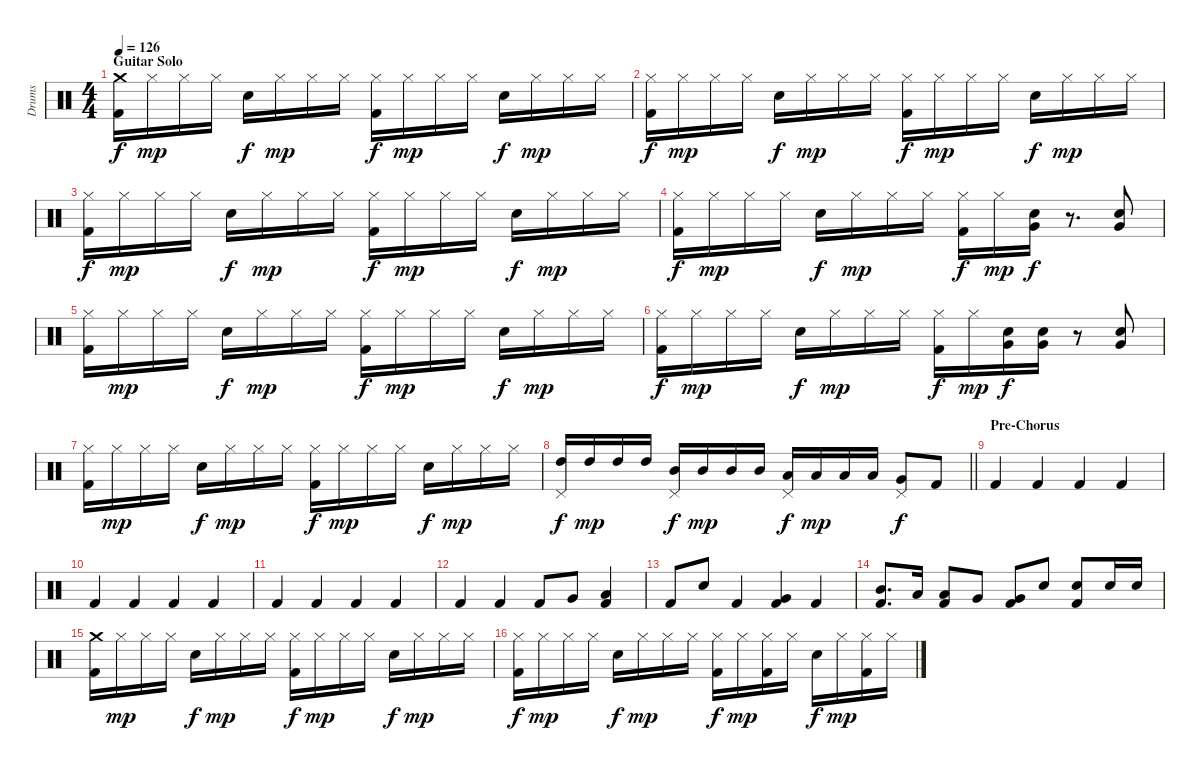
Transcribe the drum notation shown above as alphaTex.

\track ("Drums" "Drums") {instrument percussion}
\staff {score}
\articulation defaults
\ts (4 4)
\section ("" "Guitar Solo")
\tempo 126
\clef neutral
\ks c
("Crash medium (hit)" "Kick (hit) 2").16{dy f} "Hi-Hat (closed)".16{dy mp} "Hi-Hat (closed)".16 "Hi-Hat (closed)".16 "Snare (hit) 2".16{dy f} "Hi-Hat (closed)".16{dy mp} "Hi-Hat (closed)".16 "Hi-Hat (closed)".16 ("Hi-Hat (closed)" "Kick (hit) 2").16{dy f} "Hi-Hat (closed)".16{dy mp} "Hi-Hat (closed)".16 "Hi-Hat (closed)".16 "Snare (hit) 2".16{dy f} "Hi-Hat (closed)".16{dy mp} "Hi-Hat (closed)".16 "Hi-Hat (closed)".16 |
("Hi-Hat (closed)" "Kick (hit) 2").16{dy f} "Hi-Hat (closed)".16{dy mp} "Hi-Hat (closed)".16 "Hi-Hat (closed)".16 "Snare (hit) 2".16{dy f} "Hi-Hat (closed)".16{dy mp} "Hi-Hat (closed)".16 "Hi-Hat (closed)".16 ("Hi-Hat (closed)" "Kick (hit) 2").16{dy f} "Hi-Hat (closed)".16{dy mp} "Hi-Hat (closed)".16 "Hi-Hat (closed)".16 "Snare (hit) 2".16{dy f} "Hi-Hat (closed)".16{dy mp} "Hi-Hat (closed)".16 "Hi-Hat (closed)".16 |
("Hi-Hat (closed)" "Kick (hit) 2").16{dy f} "Hi-Hat (closed)".16{dy mp} "Hi-Hat (closed)".16 "Hi-Hat (closed)".16 "Snare (hit) 2".16{dy f} "Hi-Hat (closed)".16{dy mp} "Hi-Hat (closed)".16 "Hi-Hat (closed)".16 ("Hi-Hat (closed)" "Kick (hit) 2").16{dy f} "Hi-Hat (closed)".16{dy mp} "Hi-Hat (closed)".16 "Hi-Hat (closed)".16 "Snare (hit) 2".16{dy f} "Hi-Hat (closed)".16{dy mp} "Hi-Hat (closed)".16 "Hi-Hat (closed)".16 |
("Hi-Hat (closed)" "Kick (hit) 2").16{dy f} "Hi-Hat (closed)".16{dy mp} "Hi-Hat (closed)".16 "Hi-Hat (closed)".16 "Snare (hit) 2".16{dy f} "Hi-Hat (closed)".16{dy mp} "Hi-Hat (closed)".16 "Hi-Hat (closed)".16 ("Hi-Hat (closed)" "Kick (hit) 2").16{dy f} "Hi-Hat (closed)".16{dy mp} ("Snare (hit) 2" "Very Low Tom (hit)").16{dy f} r.8{d} ("Snare (hit) 2" "Very Low Tom (hit)").8 |
("Hi-Hat (closed)" "Kick (hit) 2").16 "Hi-Hat (closed)".16{dy mp} "Hi-Hat (closed)".16 "Hi-Hat (closed)".16 "Snare (hit) 2".16{dy f} "Hi-Hat (closed)".16{dy mp} "Hi-Hat (closed)".16 "Hi-Hat (closed)".16 ("Hi-Hat (closed)" "Kick (hit) 2").16{dy f} "Hi-Hat (closed)".16{dy mp} "Hi-Hat (closed)".16 "Hi-Hat (closed)".16 "Snare (hit) 2".16{dy f} "Hi-Hat (closed)".16{dy mp} "Hi-Hat (closed)".16 "Hi-Hat (closed)".16 |
("Hi-Hat (closed)" "Kick (hit) 2").16{dy f} "Hi-Hat (closed)".16{dy mp} "Hi-Hat (closed)".16 "Hi-Hat (closed)".16 "Snare (hit) 2".16{dy f} "Hi-Hat (closed)".16{dy mp} "Hi-Hat (closed)".16 "Hi-Hat (closed)".16 ("Hi-Hat (closed)" "Kick (hit) 2").16{dy f} "Hi-Hat (closed)".16{dy mp} ("Snare (hit) 2" "Very Low Tom (hit)").16{dy f} ("Snare (hit) 2" "Very Low Tom (hit)").16 r.8 ("Snare (hit) 2" "Very Low Tom (hit)").8 |
("Hi-Hat (closed)" "Kick (hit) 2").16 "Hi-Hat (closed)".16{dy mp} "Hi-Hat (closed)".16 "Hi-Hat (closed)".16 "Snare (hit) 2".16{dy f} "Hi-Hat (closed)".16{dy mp} "Hi-Hat (closed)".16 "Hi-Hat (closed)".16 ("Hi-Hat (closed)" "Kick (hit) 2").16{dy f} "Hi-Hat (closed)".16{dy mp} "Hi-Hat (closed)".16 "Hi-Hat (closed)".16 "Snare (hit) 2".16{dy f} "Hi-Hat (closed)".16{dy mp} "Hi-Hat (closed)".16 "Hi-Hat (closed)".16 |
\barLineRight lightlight
("Pedal Hi-Hat (hit)" "High Tom (hit)").16{dy f} "High Tom (hit)".16{dy mp} "High Tom (hit)".16 "High Tom (hit)".16 ("Pedal Hi-Hat (hit)" "Mid Tom (hit)").16{dy f} "Mid Tom (hit)".16{dy mp} "Mid Tom (hit)".16 "Mid Tom (hit)".16 ("Pedal Hi-Hat (hit)" "Low Tom (hit)").16{dy f} "Low Tom (hit)".16{dy mp} "Low Tom (hit)".16 "Low Tom (hit)".16 ("Pedal Hi-Hat (hit)" "Very Low Tom (hit)").8{dy f} "Kick (hit) 2".8 |
\section ("" "Pre-Chorus")
"Kick (hit) 2".4 "Kick (hit) 2".4 "Kick (hit) 2".4 "Kick (hit) 2".4 |
"Kick (hit) 2".4 "Kick (hit) 2".4 "Kick (hit) 2".4 "Kick (hit) 2".4 |
"Kick (hit) 2".4 "Kick (hit) 2".4 "Kick (hit) 2".4 "Kick (hit) 2".4 |
"Kick (hit) 2".4 "Kick (hit) 2".4 "Kick (hit) 2".8 "Very Low Tom (hit)".8 ("Low Floor Tom (hit)" "Kick (hit) 2").4 |
"Kick (hit) 2".8 "Snare (hit) 2".8 "Kick (hit) 2".4 ("Very Low Tom (hit)" "Kick (hit) 2").4 "Kick (hit) 2".4 |
("Mid Tom (hit)" "Kick (hit) 2").8{d} "Low Tom (hit)".16 ("Low Tom (hit)" "Kick (hit) 2").8 "Very Low Tom (hit)".8 ("Very Low Tom (hit)" "Kick (hit) 2").8 "Snare (hit) 2".8 ("Snare (hit) 2" "Kick (hit) 2").8 "Snare (hit) 2".16 "Snare (hit) 2".16 |
("Crash medium (hit)" "Kick (hit) 2").16 "Hi-Hat (closed)".16{dy mp} "Hi-Hat (closed)".16 "Hi-Hat (closed)".16 "Snare (hit) 2".16{dy f} "Hi-Hat (closed)".16{dy mp} "Hi-Hat (closed)".16 "Hi-Hat (closed)".16 ("Hi-Hat (closed)" "Kick (hit) 2").16{dy f} "Hi-Hat (closed)".16{dy mp} "Hi-Hat (closed)".16 "Hi-Hat (closed)".16 "Snare (hit) 2".16{dy f} "Hi-Hat (closed)".16{dy mp} "Hi-Hat (closed)".16 "Hi-Hat (closed)".16 |
("Hi-Hat (closed)" "Kick (hit) 2").16{dy f} "Hi-Hat (closed)".16{dy mp} "Hi-Hat (closed)".16 "Hi-Hat (closed)".16 "Snare (hit) 2".16{dy f} "Hi-Hat (closed)".16{dy mp} "Hi-Hat (closed)".16 "Hi-Hat (closed)".16 ("Hi-Hat (closed)" "Kick (hit) 2").16{dy f} "Hi-Hat (closed)".16{dy mp} ("Hi-Hat (closed)" "Kick (hit) 2").16 "Hi-Hat (closed)".16 "Snare (hit) 2".16{dy f} "Hi-Hat (closed)".16{dy mp} ("Hi-Hat (closed)" "Kick (hit) 2").16 "Hi-Hat (closed)".16
